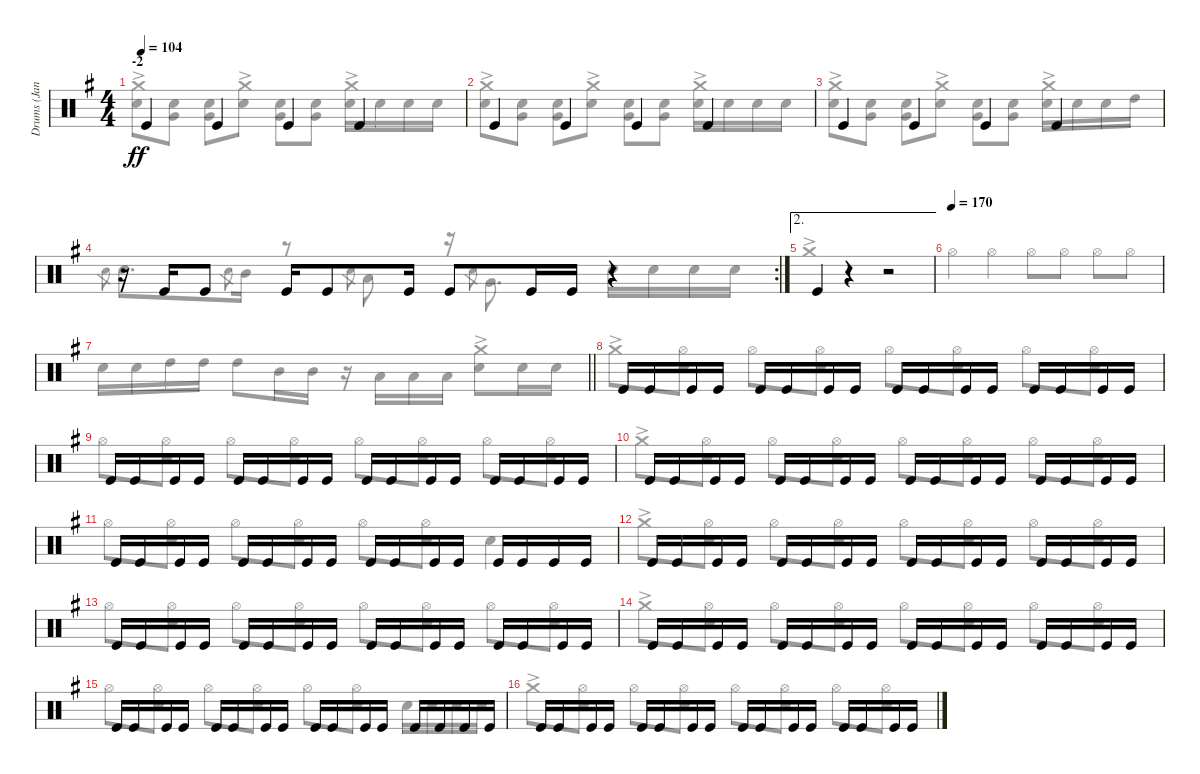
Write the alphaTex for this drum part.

\track ("Drums (Jane)" "Drums (Jan") {instrument percussion}
\staff {score}
\articulation defaults
\voice
\ts (4 4)
\section ("" "-2")
\tempo 104
\clef neutral
\ks eminor "Kick (hit)".4{dy ff} "Kick (hit)".4 "Kick (hit)".4 "Kick (hit)".4
|
"Kick (hit)".4 "Kick (hit)".4 "Kick (hit)".4 "Kick (hit)".4 |
"Kick (hit)".4 "Kick (hit)".4 "Kick (hit)".4 "Kick (hit)".4 |
\rc 2
r.16 "Kick (hit)".16 "Kick (hit)".8 "Kick (hit)".16 "Kick (hit)".8 "Kick (hit)".16 "Kick (hit)".8 "Kick (hit)".16 "Kick (hit)".16 r.4 |
\ae 2 "Kick (hit)".4
r.4 r.2 |
\tempo 170
|
\barLineRight lightlight
|
\section ("" "")
"Kick (hit)".16 "Kick (hit)".16 "Kick (hit)".16 "Kick (hit)".16 "Kick (hit)".16 "Kick (hit)".16 "Kick (hit)".16 "Kick (hit)".16 "Kick (hit)".16 "Kick (hit)".16 "Kick (hit)".16 "Kick (hit)".16 "Kick (hit)".16 "Kick (hit)".16 "Kick (hit)".16 "Kick (hit)".16 |
"Kick (hit)".16 "Kick (hit)".16 "Kick (hit)".16 "Kick (hit)".16 "Kick (hit)".16 "Kick (hit)".16 "Kick (hit)".16 "Kick (hit)".16 "Kick (hit)".16 "Kick (hit)".16 "Kick (hit)".16 "Kick (hit)".16 "Kick (hit)".16 "Kick (hit)".16 "Kick (hit)".16 "Kick (hit)".16 |
"Kick (hit)".16 "Kick (hit)".16 "Kick (hit)".16 "Kick (hit)".16 "Kick (hit)".16 "Kick (hit)".16 "Kick (hit)".16 "Kick (hit)".16 "Kick (hit)".16 "Kick (hit)".16 "Kick (hit)".16 "Kick (hit)".16 "Kick (hit)".16 "Kick (hit)".16 "Kick (hit)".16 "Kick (hit)".16 |
"Kick (hit)".16 "Kick (hit)".16 "Kick (hit)".16 "Kick (hit)".16 "Kick (hit)".16 "Kick (hit)".16 "Kick (hit)".16 "Kick (hit)".16 "Kick (hit)".16 "Kick (hit)".16 "Kick (hit)".16 "Kick (hit)".16 "Kick (hit)".16 "Kick (hit)".16 "Kick (hit)".16 "Kick (hit)".16 |
"Kick (hit)".16 "Kick (hit)".16 "Kick (hit)".16 "Kick (hit)".16 "Kick (hit)".16 "Kick (hit)".16 "Kick (hit)".16 "Kick (hit)".16 "Kick (hit)".16 "Kick (hit)".16 "Kick (hit)".16 "Kick (hit)".16 "Kick (hit)".16 "Kick (hit)".16 "Kick (hit)".16 "Kick (hit)".16 |
"Kick (hit)".16 "Kick (hit)".16 "Kick (hit)".16 "Kick (hit)".16 "Kick (hit)".16 "Kick (hit)".16 "Kick (hit)".16 "Kick (hit)".16 "Kick (hit)".16 "Kick (hit)".16 "Kick (hit)".16 "Kick (hit)".16 "Kick (hit)".16 "Kick (hit)".16 "Kick (hit)".16 "Kick (hit)".16 |
"Kick (hit)".16 "Kick (hit)".16 "Kick (hit)".16 "Kick (hit)".16 "Kick (hit)".16 "Kick (hit)".16 "Kick (hit)".16 "Kick (hit)".16 "Kick (hit)".16 "Kick (hit)".16 "Kick (hit)".16 "Kick (hit)".16 "Kick (hit)".16 "Kick (hit)".16 "Kick (hit)".16 "Kick (hit)".16 |
"Kick (hit)".16 "Kick (hit)".16 "Kick (hit)".16 "Kick (hit)".16 "Kick (hit)".16 "Kick (hit)".16 "Kick (hit)".16 "Kick (hit)".16 "Kick (hit)".16 "Kick (hit)".16 "Kick (hit)".16 "Kick (hit)".16 "Kick (hit)".16 "Kick (hit)".16 "Kick (hit)".16 "Kick (hit)".16 |
"Kick (hit)".16 "Kick (hit)".16 "Kick (hit)".16 "Kick (hit)".16 "Kick (hit)".16 "Kick (hit)".16 "Kick (hit)".16 "Kick (hit)".16 "Kick (hit)".16 "Kick (hit)".16 "Kick (hit)".16 "Kick (hit)".16 "Kick (hit)".16 "Kick (hit)".16 "Kick (hit)".16 "Kick (hit)".16
\voice
\clef neutral
\ottava regular
\simile none
\ks eminor
("Snare (hit) 2" "Crash medium (hit)"{ac}).8{dy ff} ("Snare (hit) 2" "Very Low Tom (hit)").8 ("Snare (hit) 2" "Very Low Tom (hit)").8 ("Snare (hit) 2" "Crash medium (hit)"{ac}).8 ("Snare (hit) 2" "Very Low Tom (hit)").8 ("Snare (hit) 2" "Very Low Tom (hit)").8 ("Snare (hit) 2" "Crash medium (hit)"{ac}).16 "Snare (hit) 2".16 "Snare (hit) 2".16 "Snare (hit) 2".16 |
("Snare (hit) 2" "Crash medium (hit)"{ac}).8 ("Snare (hit) 2" "Very Low Tom (hit)").8 ("Snare (hit) 2" "Very Low Tom (hit)").8 ("Snare (hit) 2" "Crash medium (hit)"{ac}).8 ("Snare (hit) 2" "Very Low Tom (hit)").8 ("Snare (hit) 2" "Very Low Tom (hit)").8 ("Snare (hit) 2" "Crash medium (hit)"{ac}).16 "Snare (hit) 2".16 "Snare (hit) 2".16 "Snare (hit) 2".16 |
("Snare (hit) 2" "Crash medium (hit)"{ac}).8 ("Snare (hit) 2" "Very Low Tom (hit)").8 ("Snare (hit) 2" "Very Low Tom (hit)").8 ("Snare (hit) 2" "Crash medium (hit)"{ac}).8 ("Snare (hit) 2" "Very Low Tom (hit)").8 ("Snare (hit) 2" "Very Low Tom (hit)").8 ("Snare (hit) 2" "Crash medium (hit)"{ac}).16 "Snare (hit) 2".16 "Snare (hit) 2".16 "High Tom (hit)".16 |
"Snare (hit)".8{gr} "Snare (hit) 2".8{d} "Snare (hit)".8{gr} "Mid Tom (hit)".16 r.8 "Snare (hit)".8{gr} "Low Tom (hit)".8 r.16 "Snare (hit)".8{gr} "Very Low Tom (hit)".8{d} "Snare (hit) 2".16 "Snare (hit) 2".16 "Snare (hit) 2".16 "Snare (hit) 2".16 |
"Crash medium (hit)"{ac}.1 |
"Hi-Hat (open)".4 "Hi-Hat (open)".4 "Hi-Hat (open)".8 "Hi-Hat (open)".8 "Hi-Hat (open)".8 "Hi-Hat (open)".8 |
\barLineRight lightlight "Snare (hit) 2".16 "Snare (hit) 2".16 "High Tom (hit)".16 "High Tom (hit)".16 "High Tom (hit)".8 "Mid Tom (hit)".16 "Mid Tom (hit)".16
r.16 "Low Tom (hit)".16 "Low Tom (hit)".16 "Low Tom (hit)".16 ("Snare (hit) 2" "Crash medium (hit)"{ac}).8 "Snare (hit) 2".16 "Snare (hit) 2".16 |
"Crash medium (hit)"{ac}.8 ("Hi-Hat (open)" "Snare (hit) 2").8 "Hi-Hat (open)".8 ("Hi-Hat (open)" "Snare (hit) 2").8 "Hi-Hat (open)".8 ("Hi-Hat (open)" "Snare (hit) 2").8 "Hi-Hat (open)".8 ("Hi-Hat (open)" "Snare (hit) 2").8 |
"Hi-Hat (open)".8 ("Hi-Hat (open)" "Snare (hit) 2").8 "Hi-Hat (open)".8 ("Hi-Hat (open)" "Snare (hit) 2").8 "Hi-Hat (open)".8 ("Hi-Hat (open)" "Snare (hit) 2").8 "Hi-Hat (open)".8 ("Hi-Hat (open)" "Snare (hit) 2").8 |
"Crash medium (hit)"{ac}.8 ("Hi-Hat (open)" "Snare (hit) 2").8 "Hi-Hat (open)".8 ("Hi-Hat (open)" "Snare (hit) 2").8 "Hi-Hat (open)".8 ("Hi-Hat (open)" "Snare (hit) 2").8 "Hi-Hat (open)".8 ("Hi-Hat (open)" "Snare (hit) 2").8 |
"Hi-Hat (open)".8 ("Hi-Hat (open)" "Snare (hit) 2").8 "Hi-Hat (open)".8 ("Hi-Hat (open)" "Snare (hit) 2").8 "Hi-Hat (open)".8 ("Hi-Hat (open)" "Snare (hit) 2").8 "Snare (hit) 2".4 |
"Crash medium (hit)"{ac}.8 ("Hi-Hat (open)" "Snare (hit) 2").8 "Hi-Hat (open)".8 ("Hi-Hat (open)" "Snare (hit) 2").8 "Hi-Hat (open)".8 ("Hi-Hat (open)" "Snare (hit) 2").8 "Hi-Hat (open)".8 ("Hi-Hat (open)" "Snare (hit) 2").8 |
"Hi-Hat (open)".8 ("Hi-Hat (open)" "Snare (hit) 2").8 "Hi-Hat (open)".8 ("Hi-Hat (open)" "Snare (hit) 2").8 "Hi-Hat (open)".8 ("Hi-Hat (open)" "Snare (hit) 2").8 "Hi-Hat (open)".8 ("Hi-Hat (open)" "Snare (hit) 2").8 |
"Crash medium (hit)"{ac}.8 ("Hi-Hat (open)" "Snare (hit) 2").8 "Hi-Hat (open)".8 ("Hi-Hat (open)" "Snare (hit) 2").8 "Hi-Hat (open)".8 ("Hi-Hat (open)" "Snare (hit) 2").8 "Hi-Hat (open)".8 ("Hi-Hat (open)" "Snare (hit) 2").8 |
"Hi-Hat (open)".8 ("Hi-Hat (open)" "Snare (hit) 2").8 "Hi-Hat (open)".8 ("Hi-Hat (open)" "Snare (hit) 2").8 "Hi-Hat (open)".8 ("Hi-Hat (open)" "Snare (hit) 2").8 "Snare (hit) 2".16 "Snare (hit) 2".16 "Snare (hit) 2".16 "Snare (hit) 2".16 |
"Crash medium (hit)"{ac}.8 ("Hi-Hat (open)" "Snare (hit) 2").8 "Hi-Hat (open)".8 ("Hi-Hat (open)" "Snare (hit) 2").8 "Hi-Hat (open)".8 ("Hi-Hat (open)" "Snare (hit) 2").8 "Hi-Hat (open)".8 ("Hi-Hat (open)" "Snare (hit) 2").8
